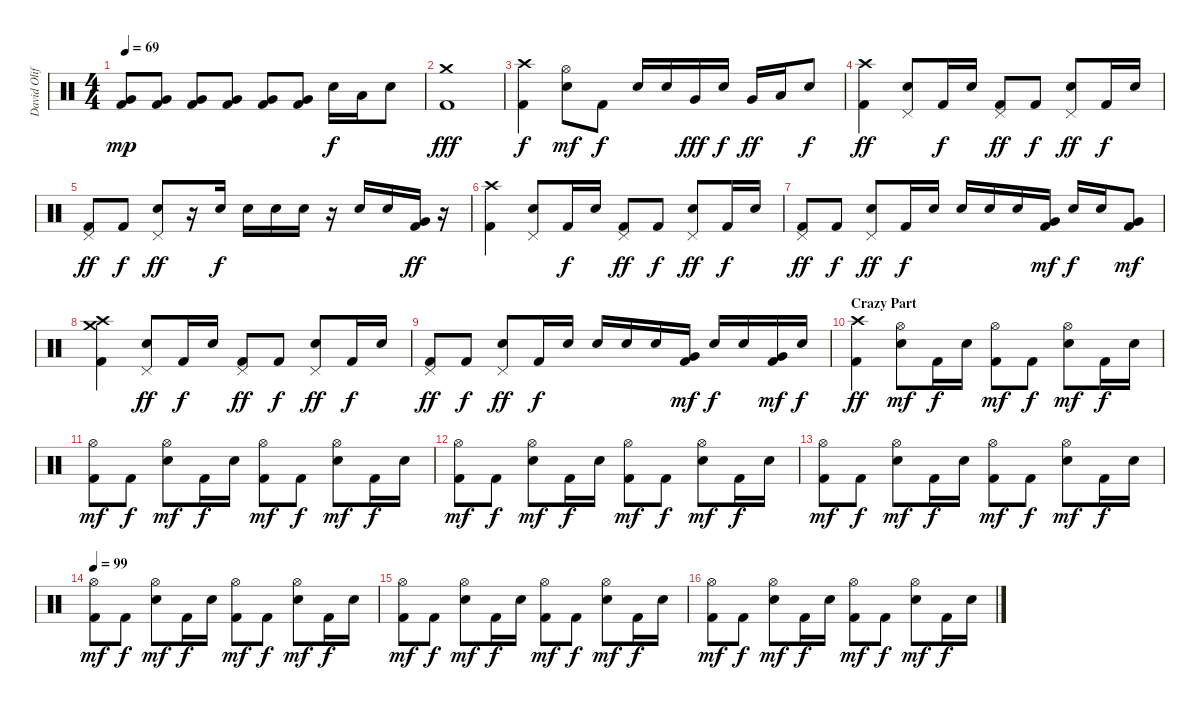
\track ("David Oliffe" "David Olif") {instrument percussion}
\staff {score}
\articulation defaults
\ts (4 4)
\tempo 69
\clef neutral
\ks c
("Very Low Tom (hit)" "Kick (hit) 2").8{dy mp} ("Very Low Tom (hit)" "Kick (hit) 2").8 ("Very Low Tom (hit)" "Kick (hit) 2").8 ("Very Low Tom (hit)" "Kick (hit) 2").8 ("Very Low Tom (hit)" "Kick (hit) 2").8 ("Very Low Tom (hit)" "Kick (hit) 2").8 "Electric Snare (hit)".16{dy f} "Low Tom (hit)".16 "Electric Snare (hit)".8 |
("Crash medium (hit)" "Kick (hit) 2").1{dy fff} |
("Crash high (hit)" "Kick (hit) 2").4{dy f} ("Hi-Hat (open)" "Electric Snare (hit)").8{dy mf} "Kick (hit) 2".8{dy f} "Electric Snare (hit)".16 "Electric Snare (hit)".16 "Very Low Tom (hit)".16{dy fff} "Electric Snare (hit)".16{dy f} "Very Low Tom (hit)".16{dy ff} "Low Tom (hit)".16 "Electric Snare (hit)".8{dy f} |
("Crash high (hit)" "Kick (hit) 2").4{dy ff} ("Pedal Hi-Hat (hit)" "Electric Snare (hit)").8 "Kick (hit) 2".16{dy f} "Electric Snare (hit)".16 ("Pedal Hi-Hat (hit)" "Kick (hit) 2").8{dy ff} "Kick (hit) 2".8{dy f} ("Pedal Hi-Hat (hit)" "Electric Snare (hit)").8{dy ff} "Kick (hit) 2".16{dy f} "Electric Snare (hit)".16 |
("Pedal Hi-Hat (hit)" "Kick (hit) 2").8{dy ff} "Kick (hit) 2".8{dy f} ("Pedal Hi-Hat (hit)" "Electric Snare (hit)").8{dy ff} r.16 "Electric Snare (hit)".16{dy f} "Electric Snare (hit)".16 "Electric Snare (hit)".16 "Electric Snare (hit)".16 r.16 "Electric Snare (hit)".16 "Electric Snare (hit)".16 ("Very Low Tom (hit)" "Kick (hit) 2").16{dy ff} r.16 |
("Crash high (hit)" "Kick (hit) 2").4 ("Pedal Hi-Hat (hit)" "Electric Snare (hit)").8 "Kick (hit) 2".16{dy f} "Electric Snare (hit)".16 ("Pedal Hi-Hat (hit)" "Kick (hit) 2").8{dy ff} "Kick (hit) 2".8{dy f} ("Pedal Hi-Hat (hit)" "Electric Snare (hit)").8{dy ff} "Kick (hit) 2".16{dy f} "Electric Snare (hit)".16 |
("Pedal Hi-Hat (hit)" "Kick (hit) 2").8{dy ff} "Kick (hit) 2".8{dy f} ("Pedal Hi-Hat (hit)" "Electric Snare (hit)").8{dy ff} "Kick (hit) 2".16{dy f} "Electric Snare (hit)".16 "Electric Snare (hit)".16 "Electric Snare (hit)".16 "Electric Snare (hit)".16 ("Very Low Tom (hit)" "Kick (hit) 2").16{dy mf} "Electric Snare (hit)".16{dy f} "Electric Snare (hit)".16 ("Very Low Tom (hit)" "Kick (hit) 2").8{dy mf} |
("Crash high (hit)" "Crash medium (hit)" "Kick (hit) 2").4 ("Pedal Hi-Hat (hit)" "Electric Snare (hit)").8{dy ff} "Kick (hit) 2".16{dy f} "Electric Snare (hit)".16 ("Pedal Hi-Hat (hit)" "Kick (hit) 2").8{dy ff} "Kick (hit) 2".8{dy f} ("Pedal Hi-Hat (hit)" "Electric Snare (hit)").8{dy ff} "Kick (hit) 2".16{dy f} "Electric Snare (hit)".16 |
("Pedal Hi-Hat (hit)" "Kick (hit) 2").8{dy ff} "Kick (hit) 2".8{dy f} ("Pedal Hi-Hat (hit)" "Electric Snare (hit)").8{dy ff} "Kick (hit) 2".16{dy f} "Electric Snare (hit)".16 "Electric Snare (hit)".16 "Electric Snare (hit)".16 "Electric Snare (hit)".16 ("Very Low Tom (hit)" "Kick (hit) 2").16{dy mf} "Electric Snare (hit)".16{dy f} "Electric Snare (hit)".16 ("Very Low Tom (hit)" "Kick (hit) 2").16{dy mf} "Electric Snare (hit)".16{dy f} |
\section ("" "Crazy Part")
("Crash high (hit)" "Kick (hit) 2").4{dy ff} ("Hi-Hat (open)" "Electric Snare (hit)").8{dy mf} "Kick (hit) 2".16{dy f} "Electric Snare (hit)".16 ("Hi-Hat (open)" "Kick (hit) 2").8{dy mf} "Kick (hit) 2".8{dy f} ("Hi-Hat (open)" "Electric Snare (hit)").8{dy mf} "Kick (hit) 2".16{dy f} "Electric Snare (hit)".16 |
("Hi-Hat (open)" "Kick (hit) 2").8{dy mf} "Kick (hit) 2".8{dy f} ("Hi-Hat (open)" "Electric Snare (hit)").8{dy mf} "Kick (hit) 2".16{dy f} "Electric Snare (hit)".16 ("Hi-Hat (open)" "Kick (hit) 2").8{dy mf} "Kick (hit) 2".8{dy f} ("Hi-Hat (open)" "Electric Snare (hit)").8{dy mf} "Kick (hit) 2".16{dy f} "Electric Snare (hit)".16 |
("Hi-Hat (open)" "Kick (hit) 2").8{dy mf} "Kick (hit) 2".8{dy f} ("Hi-Hat (open)" "Electric Snare (hit)").8{dy mf} "Kick (hit) 2".16{dy f} "Electric Snare (hit)".16 ("Hi-Hat (open)" "Kick (hit) 2").8{dy mf} "Kick (hit) 2".8{dy f} ("Hi-Hat (open)" "Electric Snare (hit)").8{dy mf} "Kick (hit) 2".16{dy f} "Electric Snare (hit)".16 |
("Hi-Hat (open)" "Kick (hit) 2").8{dy mf} "Kick (hit) 2".8{dy f} ("Hi-Hat (open)" "Electric Snare (hit)").8{dy mf} "Kick (hit) 2".16{dy f} "Electric Snare (hit)".16 ("Hi-Hat (open)" "Kick (hit) 2").8{dy mf} "Kick (hit) 2".8{dy f} ("Hi-Hat (open)" "Electric Snare (hit)").8{dy mf} "Kick (hit) 2".16{dy f} "Electric Snare (hit)".16 |
\tempo 99
("Hi-Hat (open)" "Kick (hit) 2").8{dy mf} "Kick (hit) 2".8{dy f} ("Hi-Hat (open)" "Electric Snare (hit)").8{dy mf} "Kick (hit) 2".16{dy f} "Electric Snare (hit)".16 ("Hi-Hat (open)" "Kick (hit) 2").8{dy mf} "Kick (hit) 2".8{dy f} ("Hi-Hat (open)" "Electric Snare (hit)").8{dy mf} "Kick (hit) 2".16{dy f} "Electric Snare (hit)".16 |
("Hi-Hat (open)" "Kick (hit) 2").8{dy mf} "Kick (hit) 2".8{dy f} ("Hi-Hat (open)" "Electric Snare (hit)").8{dy mf} "Kick (hit) 2".16{dy f} "Electric Snare (hit)".16 ("Hi-Hat (open)" "Kick (hit) 2").8{dy mf} "Kick (hit) 2".8{dy f} ("Hi-Hat (open)" "Electric Snare (hit)").8{dy mf} "Kick (hit) 2".16{dy f} "Electric Snare (hit)".16 |
("Hi-Hat (open)" "Kick (hit) 2").8{dy mf} "Kick (hit) 2".8{dy f} ("Hi-Hat (open)" "Electric Snare (hit)").8{dy mf} "Kick (hit) 2".16{dy f} "Electric Snare (hit)".16 ("Hi-Hat (open)" "Kick (hit) 2").8{dy mf} "Kick (hit) 2".8{dy f} ("Hi-Hat (open)" "Electric Snare (hit)").8{dy mf} "Kick (hit) 2".16{dy f} "Electric Snare (hit)".16
